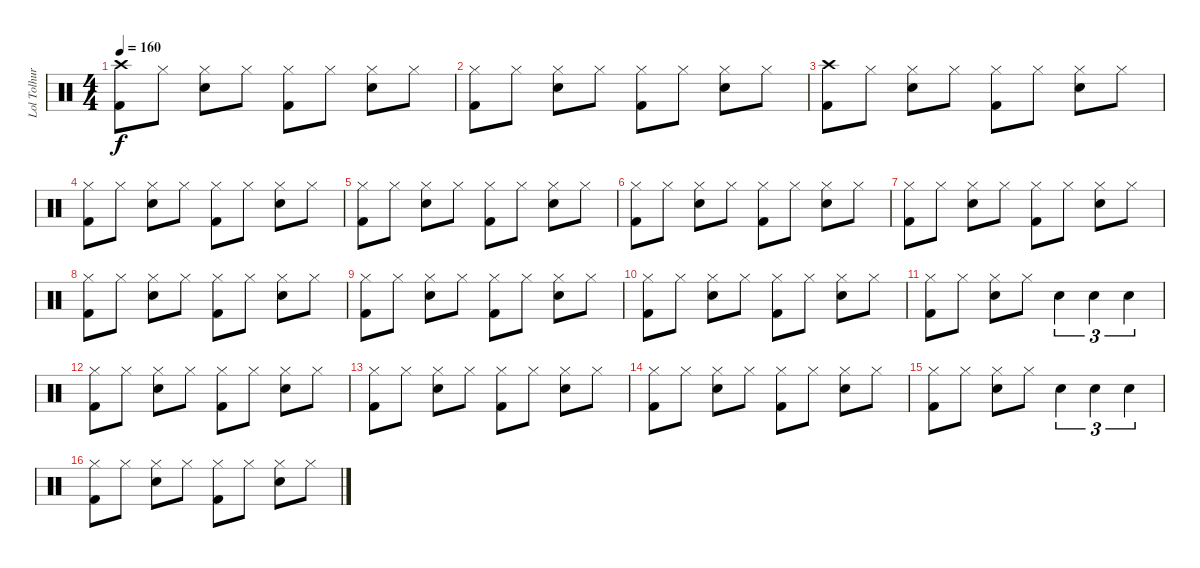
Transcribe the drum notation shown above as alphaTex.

\track ("Lol Tolhurst drums" "Lol Tolhur") {instrument percussion}
\staff {score}
\articulation defaults
\ts (4 4)
\tempo 160
\clef neutral
\ks c
("Crash high (hit)" "Kick (hit) 2").8{dy f} "Hi-Hat (closed)".8 ("Hi-Hat (closed)" "Snare (hit) 2").8 "Hi-Hat (closed)".8 ("Hi-Hat (closed)" "Kick (hit) 2").8 "Hi-Hat (closed)".8 ("Hi-Hat (closed)" "Snare (hit) 2").8 "Hi-Hat (closed)".8 |
\section ("" "")
("Hi-Hat (closed)" "Kick (hit) 2").8 "Hi-Hat (closed)".8 ("Hi-Hat (closed)" "Snare (hit) 2").8 "Hi-Hat (closed)".8 ("Hi-Hat (closed)" "Kick (hit) 2").8 "Hi-Hat (closed)".8 ("Hi-Hat (closed)" "Snare (hit) 2").8 "Hi-Hat (closed)".8 |
("Crash high (hit)" "Kick (hit) 2").8 "Hi-Hat (closed)".8 ("Hi-Hat (closed)" "Snare (hit) 2").8 "Hi-Hat (closed)".8 ("Hi-Hat (closed)" "Kick (hit) 2").8 "Hi-Hat (closed)".8 ("Hi-Hat (closed)" "Snare (hit) 2").8 "Hi-Hat (closed)".8 |
("Hi-Hat (closed)" "Kick (hit) 2").8 "Hi-Hat (closed)".8 ("Hi-Hat (closed)" "Snare (hit) 2").8 "Hi-Hat (closed)".8 ("Hi-Hat (closed)" "Kick (hit) 2").8 "Hi-Hat (closed)".8 ("Hi-Hat (closed)" "Snare (hit) 2").8 "Hi-Hat (closed)".8 |
("Hi-Hat (closed)" "Kick (hit) 2").8 "Hi-Hat (closed)".8 ("Hi-Hat (closed)" "Snare (hit) 2").8 "Hi-Hat (closed)".8 ("Hi-Hat (closed)" "Kick (hit) 2").8 "Hi-Hat (closed)".8 ("Hi-Hat (closed)" "Snare (hit) 2").8 "Hi-Hat (closed)".8 |
("Hi-Hat (closed)" "Kick (hit) 2").8 "Hi-Hat (closed)".8 ("Hi-Hat (closed)" "Snare (hit) 2").8 "Hi-Hat (closed)".8 ("Hi-Hat (closed)" "Kick (hit) 2").8 "Hi-Hat (closed)".8 ("Hi-Hat (closed)" "Snare (hit) 2").8 "Hi-Hat (closed)".8 |
("Hi-Hat (closed)" "Kick (hit) 2").8 "Hi-Hat (closed)".8 ("Hi-Hat (closed)" "Snare (hit) 2").8 "Hi-Hat (closed)".8 ("Hi-Hat (closed)" "Kick (hit) 2").8 "Hi-Hat (closed)".8 ("Hi-Hat (closed)" "Snare (hit) 2").8 "Hi-Hat (closed)".8 |
("Hi-Hat (closed)" "Kick (hit) 2").8 "Hi-Hat (closed)".8 ("Hi-Hat (closed)" "Snare (hit) 2").8 "Hi-Hat (closed)".8 ("Hi-Hat (closed)" "Kick (hit) 2").8 "Hi-Hat (closed)".8 ("Hi-Hat (closed)" "Snare (hit) 2").8 "Hi-Hat (closed)".8 |
("Hi-Hat (closed)" "Kick (hit) 2").8 "Hi-Hat (closed)".8 ("Hi-Hat (closed)" "Snare (hit) 2").8 "Hi-Hat (closed)".8 ("Hi-Hat (closed)" "Kick (hit) 2").8 "Hi-Hat (closed)".8 ("Hi-Hat (closed)" "Snare (hit) 2").8 "Hi-Hat (closed)".8 |
("Hi-Hat (closed)" "Kick (hit) 2").8 "Hi-Hat (closed)".8 ("Hi-Hat (closed)" "Snare (hit) 2").8 "Hi-Hat (closed)".8 ("Hi-Hat (closed)" "Kick (hit) 2").8 "Hi-Hat (closed)".8 ("Hi-Hat (closed)" "Snare (hit) 2").8 "Hi-Hat (closed)".8 |
("Hi-Hat (closed)" "Kick (hit) 2").8 "Hi-Hat (closed)".8 ("Hi-Hat (closed)" "Snare (hit) 2").8 "Hi-Hat (closed)".8 "Snare (hit) 2".4{tu (3 2)} "Snare (hit) 2".4{tu (3 2)} "Snare (hit) 2".4{tu (3 2)} |
("Hi-Hat (closed)" "Kick (hit) 2").8 "Hi-Hat (closed)".8 ("Hi-Hat (closed)" "Snare (hit) 2").8 "Hi-Hat (closed)".8 ("Hi-Hat (closed)" "Kick (hit) 2").8 "Hi-Hat (closed)".8 ("Hi-Hat (closed)" "Snare (hit) 2").8 "Hi-Hat (closed)".8 |
("Hi-Hat (closed)" "Kick (hit) 2").8 "Hi-Hat (closed)".8 ("Hi-Hat (closed)" "Snare (hit) 2").8 "Hi-Hat (closed)".8 ("Hi-Hat (closed)" "Kick (hit) 2").8 "Hi-Hat (closed)".8 ("Hi-Hat (closed)" "Snare (hit) 2").8 "Hi-Hat (closed)".8 |
("Hi-Hat (closed)" "Kick (hit) 2").8 "Hi-Hat (closed)".8 ("Hi-Hat (closed)" "Snare (hit) 2").8 "Hi-Hat (closed)".8 ("Hi-Hat (closed)" "Kick (hit) 2").8 "Hi-Hat (closed)".8 ("Hi-Hat (closed)" "Snare (hit) 2").8 "Hi-Hat (closed)".8 |
("Hi-Hat (closed)" "Kick (hit) 2").8 "Hi-Hat (closed)".8 ("Hi-Hat (closed)" "Snare (hit) 2").8 "Hi-Hat (closed)".8 "Snare (hit) 2".4{tu (3 2)} "Snare (hit) 2".4{tu (3 2)} "Snare (hit) 2".4{tu (3 2)} |
("Hi-Hat (closed)" "Kick (hit) 2").8 "Hi-Hat (closed)".8 ("Hi-Hat (closed)" "Snare (hit) 2").8 "Hi-Hat (closed)".8 ("Hi-Hat (closed)" "Kick (hit) 2").8 "Hi-Hat (closed)".8 ("Hi-Hat (closed)" "Snare (hit) 2").8 "Hi-Hat (closed)".8
